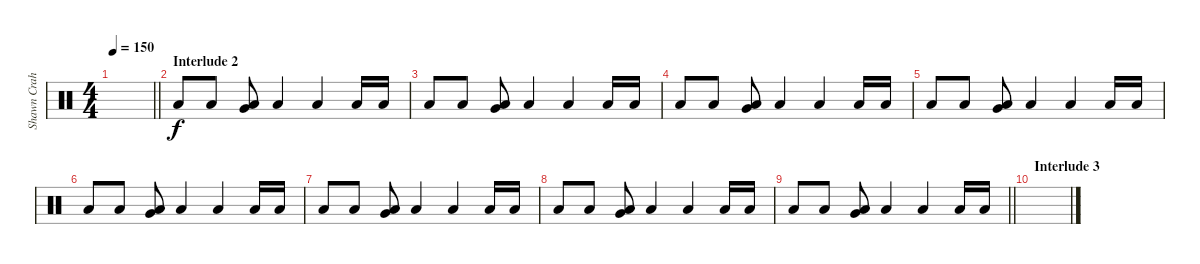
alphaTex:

\track ("Shawn Crahan" "Shawn Crah") {instrument percussion}
\staff {score}
\articulation defaults
\ts (4 4)
\tempo 150
\clef neutral
\barLineRight lightlight
\ks c
|
\section ("" "Interlude 2")
"Low Floor Tom (hit)".8 "Low Floor Tom (hit)".8 ("Very Low Tom (hit)" "Low Floor Tom (hit)").8 "Low Floor Tom (hit)".4 "Low Floor Tom (hit)".4 "Low Floor Tom (hit)".16 "Low Floor Tom (hit)".16 |
"Low Floor Tom (hit)".8 "Low Floor Tom (hit)".8 ("Very Low Tom (hit)" "Low Floor Tom (hit)").8 "Low Floor Tom (hit)".4 "Low Floor Tom (hit)".4 "Low Floor Tom (hit)".16 "Low Floor Tom (hit)".16 |
"Low Floor Tom (hit)".8 "Low Floor Tom (hit)".8 ("Very Low Tom (hit)" "Low Floor Tom (hit)").8 "Low Floor Tom (hit)".4 "Low Floor Tom (hit)".4 "Low Floor Tom (hit)".16 "Low Floor Tom (hit)".16 |
"Low Floor Tom (hit)".8 "Low Floor Tom (hit)".8 ("Very Low Tom (hit)" "Low Floor Tom (hit)").8 "Low Floor Tom (hit)".4 "Low Floor Tom (hit)".4 "Low Floor Tom (hit)".16 "Low Floor Tom (hit)".16 |
"Low Floor Tom (hit)".8 "Low Floor Tom (hit)".8 ("Very Low Tom (hit)" "Low Floor Tom (hit)").8 "Low Floor Tom (hit)".4 "Low Floor Tom (hit)".4 "Low Floor Tom (hit)".16 "Low Floor Tom (hit)".16 |
"Low Floor Tom (hit)".8 "Low Floor Tom (hit)".8 ("Very Low Tom (hit)" "Low Floor Tom (hit)").8 "Low Floor Tom (hit)".4 "Low Floor Tom (hit)".4 "Low Floor Tom (hit)".16 "Low Floor Tom (hit)".16 |
"Low Floor Tom (hit)".8 "Low Floor Tom (hit)".8 ("Very Low Tom (hit)" "Low Floor Tom (hit)").8 "Low Floor Tom (hit)".4 "Low Floor Tom (hit)".4 "Low Floor Tom (hit)".16 "Low Floor Tom (hit)".16 |
\barLineRight lightlight "Low Floor Tom (hit)".8 "Low Floor Tom (hit)".8
("Very Low Tom (hit)" "Low Floor Tom (hit)").8 "Low Floor Tom (hit)".4 "Low Floor Tom (hit)".4 "Low Floor Tom (hit)".16 "Low Floor Tom (hit)".16 |
\section ("" "Interlude 3")
